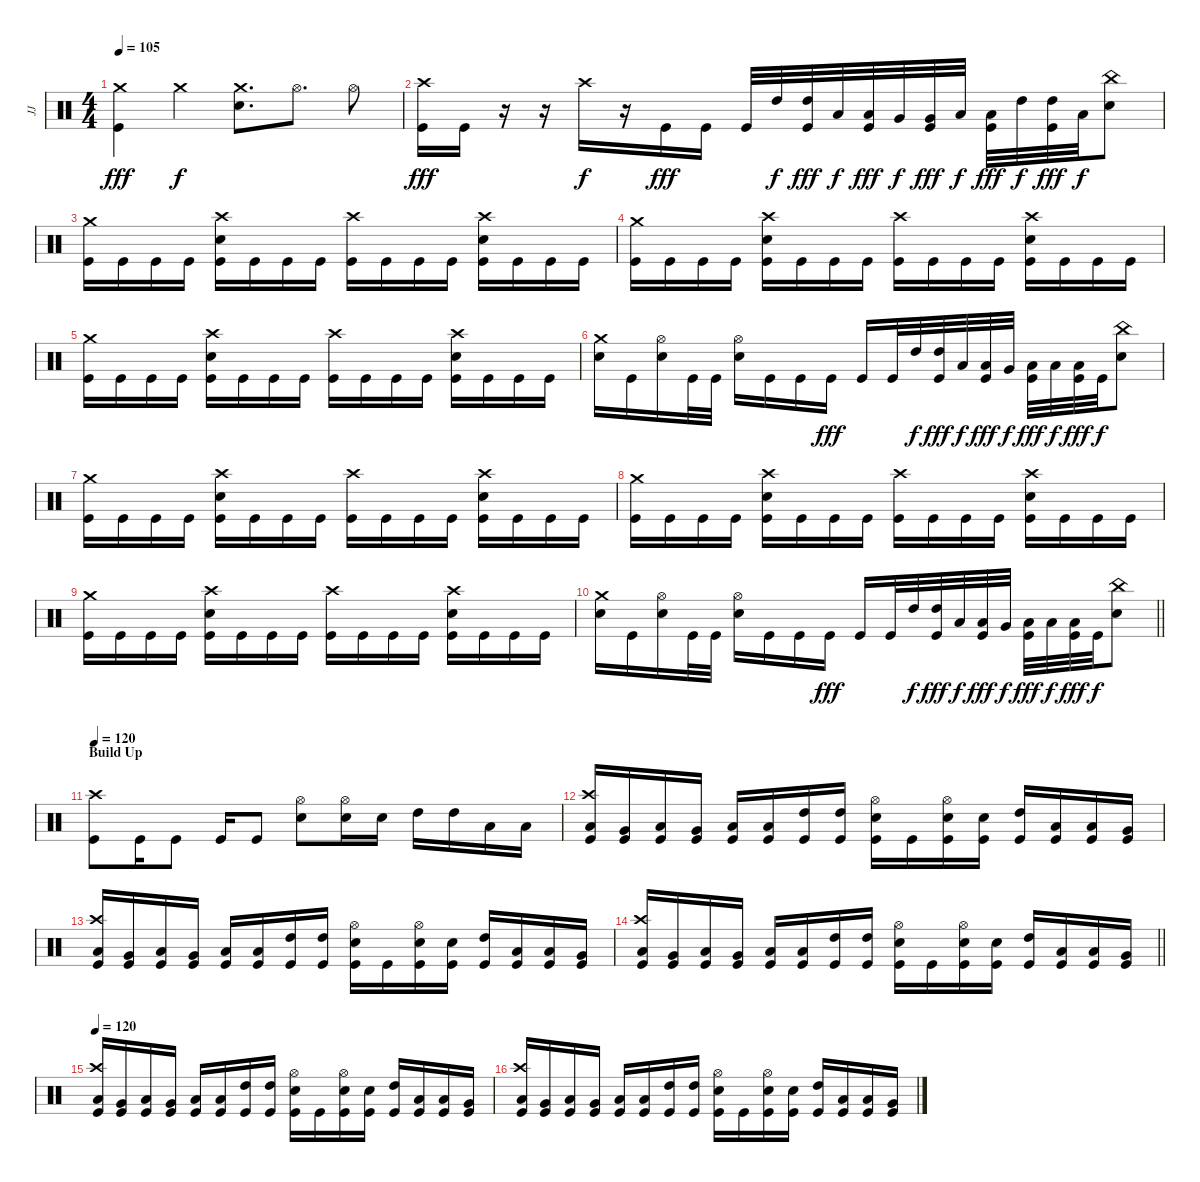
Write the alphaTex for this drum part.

\track ("JJ" "JJ") {instrument percussion}
\staff {score}
\articulation defaults
\ts (4 4)
\tempo 105
\clef neutral
\ks c
("Crash medium (hit)" "Kick (hit)").4{dy fff} "Crash medium (hit)".4{dy f} ("Crash medium (hit)" "Electric Snare (hit)").8{d} "Hi-Hat (open)".8{d} "Hi-Hat (open)".8 |
("Crash high (hit)" "Kick (hit)").16{dy fff} "Kick (hit)".16 r.16 r.16 "Crash high (hit)".16{dy f} r.16 "Kick (hit)".16{dy fff} "Kick (hit)".16 "Kick (hit)".32 "High Tom (hit)".32{dy f} ("High Tom (hit)" "Kick (hit)").32{dy fff} "Low Tom (hit)".32{dy f} ("Low Tom (hit)" "Kick (hit)").32{dy fff} "Very Low Tom (hit)".32{dy f} ("Very Low Tom (hit)" "Kick (hit)").32{dy fff} "Low Floor Tom (hit)".32{dy f} ("Low Floor Tom (hit)" "Kick (hit)").32{dy fff} "High Tom (hit)".32{dy f} ("High Tom (hit)" "Kick (hit)").32{dy fff} "Low Floor Tom (hit)".32{dy f} ("China (hit)" "Electric Snare (hit)").8 |
("Crash medium (hit)" "Kick (hit)").16 "Kick (hit)".16 "Kick (hit)".16 "Kick (hit)".16 ("Crash high (hit)" "Electric Snare (hit)" "Kick (hit)").16 "Kick (hit)".16 "Kick (hit)".16 "Kick (hit)".16 ("Crash high (hit)" "Kick (hit)").16 "Kick (hit)".16 "Kick (hit)".16 "Kick (hit)".16 ("Crash high (hit)" "Electric Snare (hit)" "Kick (hit)").16 "Kick (hit)".16 "Kick (hit)".16 "Kick (hit)".16 |
("Crash medium (hit)" "Kick (hit)").16 "Kick (hit)".16 "Kick (hit)".16 "Kick (hit)".16 ("Crash high (hit)" "Electric Snare (hit)" "Kick (hit)").16 "Kick (hit)".16 "Kick (hit)".16 "Kick (hit)".16 ("Crash high (hit)" "Kick (hit)").16 "Kick (hit)".16 "Kick (hit)".16 "Kick (hit)".16 ("Crash high (hit)" "Electric Snare (hit)" "Kick (hit)").16 "Kick (hit)".16 "Kick (hit)".16 "Kick (hit)".16 |
("Crash medium (hit)" "Kick (hit)").16 "Kick (hit)".16 "Kick (hit)".16 "Kick (hit)".16 ("Crash high (hit)" "Electric Snare (hit)" "Kick (hit)").16 "Kick (hit)".16 "Kick (hit)".16 "Kick (hit)".16 ("Crash high (hit)" "Kick (hit)").16 "Kick (hit)".16 "Kick (hit)".16 "Kick (hit)".16 ("Crash high (hit)" "Electric Snare (hit)" "Kick (hit)").16 "Kick (hit)".16 "Kick (hit)".16 "Kick (hit)".16 |
("Crash medium (hit)" "Electric Snare (hit)").16 "Kick (hit)".16 ("Hi-Hat (open)" "Electric Snare (hit)").16 "Kick (hit)".32 "Kick (hit)".32 ("Hi-Hat (open)" "Electric Snare (hit)").16 "Kick (hit)".16 "Kick (hit)".16 "Kick (hit)".16{dy fff} "Kick (hit)".16 "Kick (hit)".32 "High Tom (hit)".32{dy f} ("High Tom (hit)" "Kick (hit)").32{dy fff} "Low Tom (hit)".32{dy f} ("Low Tom (hit)" "Kick (hit)").32{dy fff} "Very Low Tom (hit)".32{dy f} ("Low Floor Tom (hit)" "Kick (hit)").32{dy fff} "Low Floor Tom (hit)".32{dy f} ("Low Floor Tom (hit)" "Kick (hit)").32{dy fff} "Kick (hit)".32{dy f} ("China (hit)" "Electric Snare (hit)").8 |
("Crash medium (hit)" "Kick (hit)").16 "Kick (hit)".16 "Kick (hit)".16 "Kick (hit)".16 ("Crash high (hit)" "Electric Snare (hit)" "Kick (hit)").16 "Kick (hit)".16 "Kick (hit)".16 "Kick (hit)".16 ("Crash high (hit)" "Kick (hit)").16 "Kick (hit)".16 "Kick (hit)".16 "Kick (hit)".16 ("Crash high (hit)" "Electric Snare (hit)" "Kick (hit)").16 "Kick (hit)".16 "Kick (hit)".16 "Kick (hit)".16 |
("Crash medium (hit)" "Kick (hit)").16 "Kick (hit)".16 "Kick (hit)".16 "Kick (hit)".16 ("Crash high (hit)" "Electric Snare (hit)" "Kick (hit)").16 "Kick (hit)".16 "Kick (hit)".16 "Kick (hit)".16 ("Crash high (hit)" "Kick (hit)").16 "Kick (hit)".16 "Kick (hit)".16 "Kick (hit)".16 ("Crash high (hit)" "Electric Snare (hit)" "Kick (hit)").16 "Kick (hit)".16 "Kick (hit)".16 "Kick (hit)".16 |
("Crash medium (hit)" "Kick (hit)").16 "Kick (hit)".16 "Kick (hit)".16 "Kick (hit)".16 ("Crash high (hit)" "Electric Snare (hit)" "Kick (hit)").16 "Kick (hit)".16 "Kick (hit)".16 "Kick (hit)".16 ("Crash high (hit)" "Kick (hit)").16 "Kick (hit)".16 "Kick (hit)".16 "Kick (hit)".16 ("Crash high (hit)" "Electric Snare (hit)" "Kick (hit)").16 "Kick (hit)".16 "Kick (hit)".16 "Kick (hit)".16 |
\barLineRight lightlight
("Crash medium (hit)" "Electric Snare (hit)").16 "Kick (hit)".16 ("Hi-Hat (open)" "Electric Snare (hit)").16 "Kick (hit)".32 "Kick (hit)".32 ("Hi-Hat (open)" "Electric Snare (hit)").16 "Kick (hit)".16 "Kick (hit)".16 "Kick (hit)".16{dy fff} "Kick (hit)".16 "Kick (hit)".32 "High Tom (hit)".32{dy f} ("High Tom (hit)" "Kick (hit)").32{dy fff} "Low Tom (hit)".32{dy f} ("Low Tom (hit)" "Kick (hit)").32{dy fff} "Very Low Tom (hit)".32{dy f} ("Low Floor Tom (hit)" "Kick (hit)").32{dy fff} "Low Floor Tom (hit)".32{dy f} ("Low Floor Tom (hit)" "Kick (hit)").32{dy fff} "Kick (hit)".32{dy f} ("China (hit)" "Electric Snare (hit)").8 |
\section ("" "Build Up")
\tempo 120
("Crash high (hit)" "Kick (hit)").8 "Kick (hit)".16 "Kick (hit)".8 "Kick (hit)".16 "Kick (hit)".8 ("Hi-Hat (open)" "Electric Snare (hit)").8 ("Hi-Hat (open)" "Electric Snare (hit)").16 "Electric Snare (hit)".16 "High Tom (hit)".16 "High Tom (hit)".16 "Low Floor Tom (hit)".16 "Low Floor Tom (hit)".16 |
("Crash high (hit)" "Low Floor Tom (hit)" "Kick (hit)").16 ("Very Low Tom (hit)" "Kick (hit)").16 ("Low Floor Tom (hit)" "Kick (hit)").16 ("Very Low Tom (hit)" "Kick (hit)").16 ("Low Tom (hit)" "Kick (hit)").16 ("Low Tom (hit)" "Kick (hit)").16 ("High Tom (hit)" "Kick (hit)").16 ("High Tom (hit)" "Kick (hit)").16 ("Hi-Hat (open)" "Electric Snare (hit)" "Kick (hit)").16 "Kick (hit)".16 ("Hi-Hat (open)" "Electric Snare (hit)" "Kick (hit)").16 ("Electric Snare (hit)" "Kick (hit)").16 ("High Tom (hit)" "Kick (hit)").16 ("Low Tom (hit)" "Kick (hit)").16 ("Low Floor Tom (hit)" "Kick (hit)").16 ("Very Low Tom (hit)" "Kick (hit)").16 |
("Crash high (hit)" "Low Floor Tom (hit)" "Kick (hit)").16 ("Very Low Tom (hit)" "Kick (hit)").16 ("Low Floor Tom (hit)" "Kick (hit)").16 ("Very Low Tom (hit)" "Kick (hit)").16 ("Low Tom (hit)" "Kick (hit)").16 ("Low Tom (hit)" "Kick (hit)").16 ("High Tom (hit)" "Kick (hit)").16 ("High Tom (hit)" "Kick (hit)").16 ("Hi-Hat (open)" "Electric Snare (hit)" "Kick (hit)").16 "Kick (hit)".16 ("Hi-Hat (open)" "Electric Snare (hit)" "Kick (hit)").16 ("Electric Snare (hit)" "Kick (hit)").16 ("High Tom (hit)" "Kick (hit)").16 ("Low Tom (hit)" "Kick (hit)").16 ("Low Floor Tom (hit)" "Kick (hit)").16 ("Very Low Tom (hit)" "Kick (hit)").16 |
\barLineRight lightlight
("Crash high (hit)" "Low Floor Tom (hit)" "Kick (hit)").16 ("Very Low Tom (hit)" "Kick (hit)").16 ("Low Floor Tom (hit)" "Kick (hit)").16 ("Very Low Tom (hit)" "Kick (hit)").16 ("Low Tom (hit)" "Kick (hit)").16 ("Low Tom (hit)" "Kick (hit)").16 ("High Tom (hit)" "Kick (hit)").16 ("High Tom (hit)" "Kick (hit)").16 ("Hi-Hat (open)" "Electric Snare (hit)" "Kick (hit)").16 "Kick (hit)".16 ("Hi-Hat (open)" "Electric Snare (hit)" "Kick (hit)").16 ("Electric Snare (hit)" "Kick (hit)").16 ("High Tom (hit)" "Kick (hit)").16 ("Low Tom (hit)" "Kick (hit)").16 ("Low Floor Tom (hit)" "Kick (hit)").16 ("Very Low Tom (hit)" "Kick (hit)").16 |
\tempo 120
("Crash high (hit)" "Low Floor Tom (hit)" "Kick (hit)").16 ("Very Low Tom (hit)" "Kick (hit)").16 ("Low Floor Tom (hit)" "Kick (hit)").16 ("Very Low Tom (hit)" "Kick (hit)").16 ("Low Tom (hit)" "Kick (hit)").16 ("Low Tom (hit)" "Kick (hit)").16 ("High Tom (hit)" "Kick (hit)").16 ("High Tom (hit)" "Kick (hit)").16 ("Hi-Hat (open)" "Electric Snare (hit)" "Kick (hit)").16 "Kick (hit)".16 ("Hi-Hat (open)" "Electric Snare (hit)" "Kick (hit)").16 ("Electric Snare (hit)" "Kick (hit)").16 ("High Tom (hit)" "Kick (hit)").16 ("Low Tom (hit)" "Kick (hit)").16 ("Low Floor Tom (hit)" "Kick (hit)").16 ("Very Low Tom (hit)" "Kick (hit)").16 |
("Crash high (hit)" "Low Floor Tom (hit)" "Kick (hit)").16 ("Very Low Tom (hit)" "Kick (hit)").16 ("Low Floor Tom (hit)" "Kick (hit)").16 ("Very Low Tom (hit)" "Kick (hit)").16 ("Low Tom (hit)" "Kick (hit)").16 ("Low Tom (hit)" "Kick (hit)").16 ("High Tom (hit)" "Kick (hit)").16 ("High Tom (hit)" "Kick (hit)").16 ("Hi-Hat (open)" "Electric Snare (hit)" "Kick (hit)").16 "Kick (hit)".16 ("Hi-Hat (open)" "Electric Snare (hit)" "Kick (hit)").16 ("Electric Snare (hit)" "Kick (hit)").16 ("High Tom (hit)" "Kick (hit)").16 ("Low Tom (hit)" "Kick (hit)").16 ("Low Floor Tom (hit)" "Kick (hit)").16 ("Very Low Tom (hit)" "Kick (hit)").16
